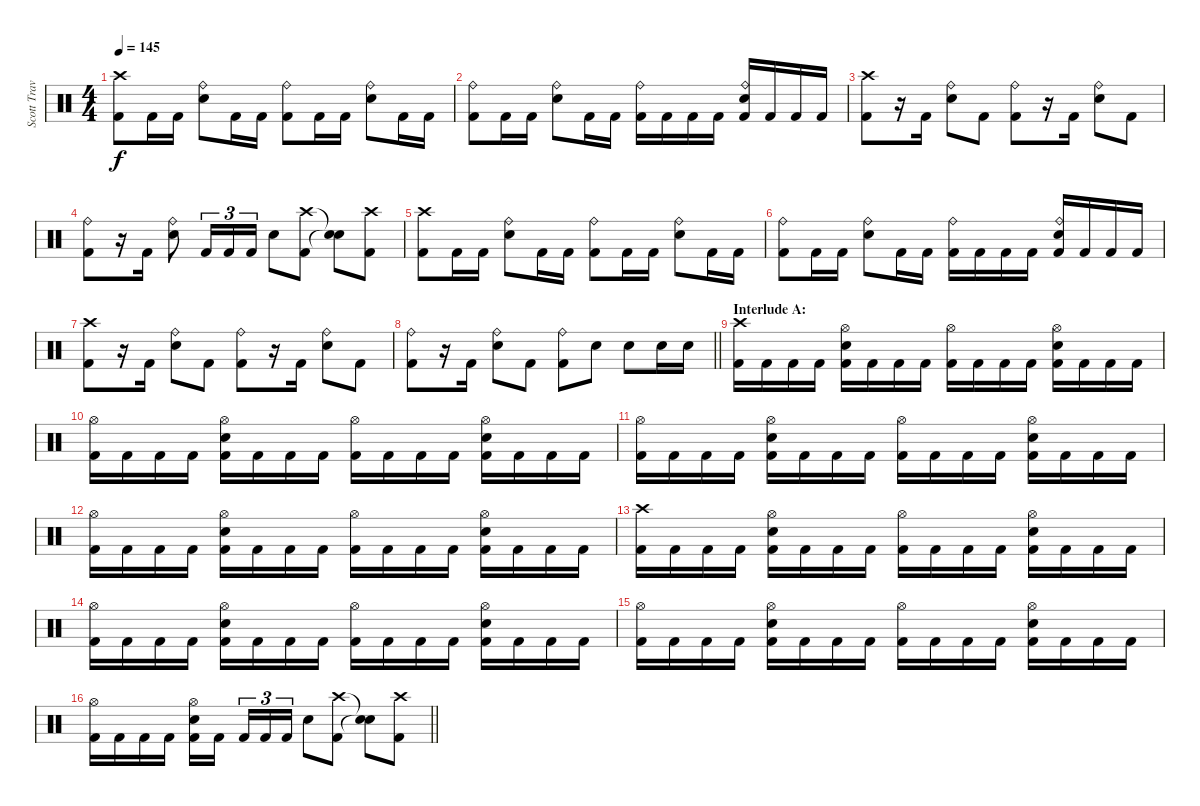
\track ("Scott Travis" "Scott Trav") {instrument percussion}
\staff {score}
\articulation defaults
\ts (4 4)
\tempo 145
\clef neutral
\ks c
("Crash high (hit)" "Kick (hit) 2").8{dy f} "Kick (hit) 2".16 "Kick (hit) 2".16 ("Ride (bell)" "Snare (hit) 2").8 "Kick (hit) 2".16 "Kick (hit) 2".16 ("Ride (bell)" "Kick (hit) 2").8 "Kick (hit) 2".16 "Kick (hit) 2".16 ("Ride (bell)" "Snare (hit) 2").8 "Kick (hit) 2".16 "Kick (hit) 2".16 |
("Ride (bell)" "Kick (hit) 2").8 "Kick (hit) 2".16 "Kick (hit) 2".16 ("Ride (bell)" "Snare (hit) 2").8 "Kick (hit) 2".16 "Kick (hit) 2".16 ("Ride (bell)" "Kick (hit) 2").16 "Kick (hit) 2".16 "Kick (hit) 2".16 "Kick (hit) 2".16 ("Ride (bell)" "Snare (hit) 2" "Kick (hit) 2").16 "Kick (hit) 2".16 "Kick (hit) 2".16 "Kick (hit) 2".16 |
("Crash high (hit)" "Kick (hit) 2").8 r.16 "Kick (hit) 2".16 ("Ride (bell)" "Snare (hit) 2").8 "Kick (hit) 2".8 ("Ride (bell)" "Kick (hit) 2").8 r.16 "Kick (hit) 2".16 ("Ride (bell)" "Snare (hit) 2").8 "Kick (hit) 2".8 |
("Ride (bell)" "Kick (hit) 2").8 r.16 "Kick (hit) 2".16 ("Ride (bell)" "Snare (hit) 2").8 "Kick (hit) 2".16{tu (3 2)} "Kick (hit) 2".16{tu (3 2)} "Kick (hit) 2".16{tu (3 2)} "Snare (hit) 2".8 ("Crash high (hit)" "Kick (hit) 2").8 ("Snare (hit)"{t} "Snare (hit)"{t}).8 ("Crash high (hit)" "Kick (hit) 2").8 |
("Crash high (hit)" "Kick (hit) 2").8 "Kick (hit) 2".16 "Kick (hit) 2".16 ("Ride (bell)" "Snare (hit) 2").8 "Kick (hit) 2".16 "Kick (hit) 2".16 ("Ride (bell)" "Kick (hit) 2").8 "Kick (hit) 2".16 "Kick (hit) 2".16 ("Ride (bell)" "Snare (hit) 2").8 "Kick (hit) 2".16 "Kick (hit) 2".16 |
("Ride (bell)" "Kick (hit) 2").8 "Kick (hit) 2".16 "Kick (hit) 2".16 ("Ride (bell)" "Snare (hit) 2").8 "Kick (hit) 2".16 "Kick (hit) 2".16 ("Ride (bell)" "Kick (hit) 2").16 "Kick (hit) 2".16 "Kick (hit) 2".16 "Kick (hit) 2".16 ("Ride (bell)" "Snare (hit) 2" "Kick (hit) 2").16 "Kick (hit) 2".16 "Kick (hit) 2".16 "Kick (hit) 2".16 |
("Crash high (hit)" "Kick (hit) 2").8 r.16 "Kick (hit) 2".16 ("Ride (bell)" "Snare (hit) 2").8 "Kick (hit) 2".8 ("Ride (bell)" "Kick (hit) 2").8 r.16 "Kick (hit) 2".16 ("Ride (bell)" "Snare (hit) 2").8 "Kick (hit) 2".8 |
\barLineRight lightlight
("Ride (bell)" "Kick (hit) 2").8 r.16 "Kick (hit) 2".16 ("Ride (bell)" "Snare (hit) 2").8 "Kick (hit) 2".8 ("Ride (bell)" "Kick (hit) 2").8 "Snare (hit) 2".8 "Snare (hit) 2".8 "Snare (hit) 2".16 "Snare (hit) 2".16 |
\section ("" "Interlude A:")
("Crash high (hit)" "Kick (hit) 2").16 "Kick (hit) 2".16 "Kick (hit) 2".16 "Kick (hit) 2".16 ("Hi-Hat (open)" "Snare (hit) 2" "Kick (hit) 2").16 "Kick (hit) 2".16 "Kick (hit) 2".16 "Kick (hit) 2".16 ("Hi-Hat (open)" "Kick (hit) 2").16 "Kick (hit) 2".16 "Kick (hit) 2".16 "Kick (hit) 2".16 ("Hi-Hat (open)" "Snare (hit) 2" "Kick (hit) 2").16 "Kick (hit) 2".16 "Kick (hit) 2".16 "Kick (hit) 2".16 |
("Hi-Hat (open)" "Kick (hit) 2").16 "Kick (hit) 2".16 "Kick (hit) 2".16 "Kick (hit) 2".16 ("Hi-Hat (open)" "Snare (hit) 2" "Kick (hit) 2").16 "Kick (hit) 2".16 "Kick (hit) 2".16 "Kick (hit) 2".16 ("Hi-Hat (open)" "Kick (hit) 2").16 "Kick (hit) 2".16 "Kick (hit) 2".16 "Kick (hit) 2".16 ("Hi-Hat (open)" "Snare (hit) 2" "Kick (hit) 2").16 "Kick (hit) 2".16 "Kick (hit) 2".16 "Kick (hit) 2".16 |
("Hi-Hat (open)" "Kick (hit) 2").16 "Kick (hit) 2".16 "Kick (hit) 2".16 "Kick (hit) 2".16 ("Hi-Hat (open)" "Snare (hit) 2" "Kick (hit) 2").16 "Kick (hit) 2".16 "Kick (hit) 2".16 "Kick (hit) 2".16 ("Hi-Hat (open)" "Kick (hit) 2").16 "Kick (hit) 2".16 "Kick (hit) 2".16 "Kick (hit) 2".16 ("Hi-Hat (open)" "Snare (hit) 2" "Kick (hit) 2").16 "Kick (hit) 2".16 "Kick (hit) 2".16 "Kick (hit) 2".16 |
("Hi-Hat (open)" "Kick (hit) 2").16 "Kick (hit) 2".16 "Kick (hit) 2".16 "Kick (hit) 2".16 ("Hi-Hat (open)" "Snare (hit) 2" "Kick (hit) 2").16 "Kick (hit) 2".16 "Kick (hit) 2".16 "Kick (hit) 2".16 ("Hi-Hat (open)" "Kick (hit) 2").16 "Kick (hit) 2".16 "Kick (hit) 2".16 "Kick (hit) 2".16 ("Hi-Hat (open)" "Snare (hit) 2" "Kick (hit) 2").16 "Kick (hit) 2".16 "Kick (hit) 2".16 "Kick (hit) 2".16 |
("Crash high (hit)" "Kick (hit) 2").16 "Kick (hit) 2".16 "Kick (hit) 2".16 "Kick (hit) 2".16 ("Hi-Hat (open)" "Snare (hit) 2" "Kick (hit) 2").16 "Kick (hit) 2".16 "Kick (hit) 2".16 "Kick (hit) 2".16 ("Hi-Hat (open)" "Kick (hit) 2").16 "Kick (hit) 2".16 "Kick (hit) 2".16 "Kick (hit) 2".16 ("Hi-Hat (open)" "Snare (hit) 2" "Kick (hit) 2").16 "Kick (hit) 2".16 "Kick (hit) 2".16 "Kick (hit) 2".16 |
("Hi-Hat (open)" "Kick (hit) 2").16 "Kick (hit) 2".16 "Kick (hit) 2".16 "Kick (hit) 2".16 ("Hi-Hat (open)" "Snare (hit) 2" "Kick (hit) 2").16 "Kick (hit) 2".16 "Kick (hit) 2".16 "Kick (hit) 2".16 ("Hi-Hat (open)" "Kick (hit) 2").16 "Kick (hit) 2".16 "Kick (hit) 2".16 "Kick (hit) 2".16 ("Hi-Hat (open)" "Snare (hit) 2" "Kick (hit) 2").16 "Kick (hit) 2".16 "Kick (hit) 2".16 "Kick (hit) 2".16 |
("Hi-Hat (open)" "Kick (hit) 2").16 "Kick (hit) 2".16 "Kick (hit) 2".16 "Kick (hit) 2".16 ("Hi-Hat (open)" "Snare (hit) 2" "Kick (hit) 2").16 "Kick (hit) 2".16 "Kick (hit) 2".16 "Kick (hit) 2".16 ("Hi-Hat (open)" "Kick (hit) 2").16 "Kick (hit) 2".16 "Kick (hit) 2".16 "Kick (hit) 2".16 ("Hi-Hat (open)" "Snare (hit) 2" "Kick (hit) 2").16 "Kick (hit) 2".16 "Kick (hit) 2".16 "Kick (hit) 2".16 |
\barLineRight lightlight
("Hi-Hat (open)" "Kick (hit) 2").16 "Kick (hit) 2".16 "Kick (hit) 2".16 "Kick (hit) 2".16 ("Hi-Hat (open)" "Snare (hit) 2" "Kick (hit) 2").16 "Kick (hit) 2".16{beam splitsecondary} "Kick (hit) 2".16{tu (3 2)} "Kick (hit) 2".16{tu (3 2)} "Kick (hit) 2".16{tu (3 2)} "Snare (hit) 2".8 ("Crash high (hit)" "Kick (hit) 2").8 ("Snare (hit)"{t} "Snare (hit)"{t}).8 ("Crash high (hit)" "Kick (hit) 2").8
